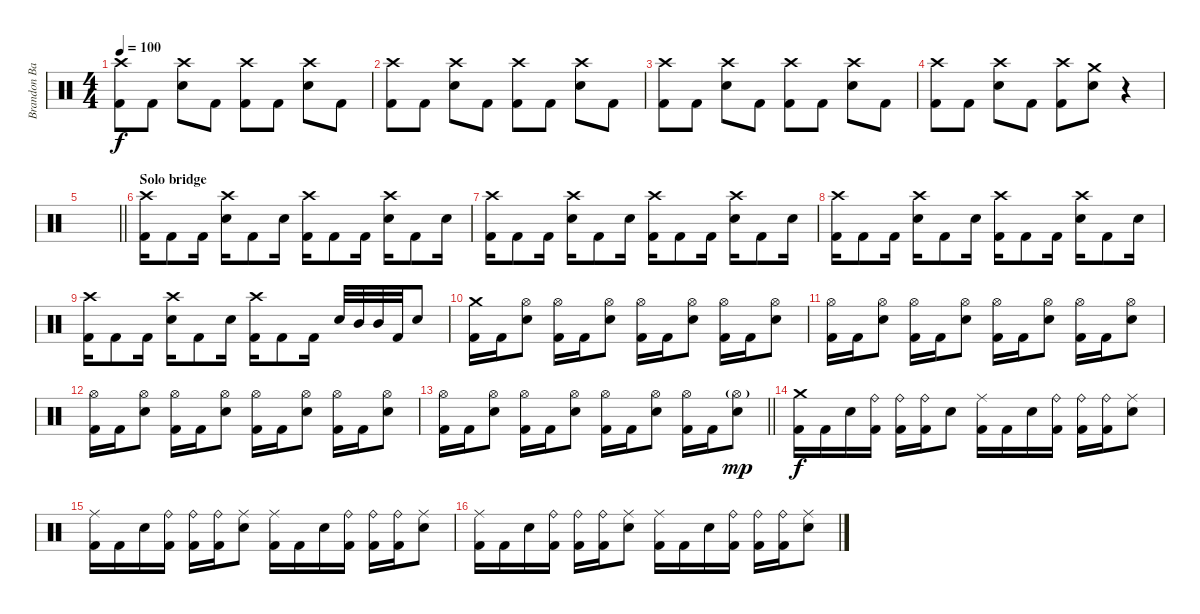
\track ("Brandon Barnes" "Brandon Ba") {instrument percussion}
\staff {score}
\articulation defaults
\ts (4 4)
\tempo 100
\clef neutral
\ks c
("Crash high (hit)" "Kick (hit) 2").8{dy f} "Kick (hit) 2".8 ("Crash high (hit)" "Electric Snare (hit)").8 "Kick (hit) 2".8 ("Crash high (hit)" "Kick (hit) 2").8 "Kick (hit) 2".8 ("Crash high (hit)" "Electric Snare (hit)").8 "Kick (hit) 2".8 |
("Crash high (hit)" "Kick (hit) 2").8 "Kick (hit) 2".8 ("Crash high (hit)" "Electric Snare (hit)").8 "Kick (hit) 2".8 ("Crash high (hit)" "Kick (hit) 2").8 "Kick (hit) 2".8 ("Crash high (hit)" "Electric Snare (hit)").8 "Kick (hit) 2".8 |
("Crash high (hit)" "Kick (hit) 2").8 "Kick (hit) 2".8 ("Crash high (hit)" "Electric Snare (hit)").8 "Kick (hit) 2".8 ("Crash high (hit)" "Kick (hit) 2").8 "Kick (hit) 2".8 ("Crash high (hit)" "Electric Snare (hit)").8 "Kick (hit) 2".8 |
("Crash high (hit)" "Kick (hit) 2").8 "Kick (hit) 2".8 ("Crash high (hit)" "Electric Snare (hit)").8 "Kick (hit) 2".8 ("Crash high (hit)" "Kick (hit) 2").8 ("Crash medium (hit)" "Electric Snare (hit)").8 r.4 |
\barLineRight lightlight
|
\section ("" "Solo bridge")
("Crash high (hit)" "Kick (hit) 2").16 "Kick (hit) 2".8 "Kick (hit) 2".16 ("Crash high (hit)" "Electric Snare (hit)").16 "Kick (hit) 2".8 "Electric Snare (hit)".16 ("Crash high (hit)" "Kick (hit) 2").16 "Kick (hit) 2".8 "Kick (hit) 2".16 ("Crash high (hit)" "Electric Snare (hit)").16 "Kick (hit) 2".8 "Electric Snare (hit)".16 |
("Crash high (hit)" "Kick (hit) 2").16 "Kick (hit) 2".8 "Kick (hit) 2".16 ("Crash high (hit)" "Electric Snare (hit)").16 "Kick (hit) 2".8 "Electric Snare (hit)".16 ("Crash high (hit)" "Kick (hit) 2").16 "Kick (hit) 2".8 "Kick (hit) 2".16 ("Crash high (hit)" "Electric Snare (hit)").16 "Kick (hit) 2".8 "Electric Snare (hit)".16 |
("Crash high (hit)" "Kick (hit) 2").16 "Kick (hit) 2".8 "Kick (hit) 2".16 ("Crash high (hit)" "Electric Snare (hit)").16 "Kick (hit) 2".8 "Electric Snare (hit)".16 ("Crash high (hit)" "Kick (hit) 2").16 "Kick (hit) 2".8 "Kick (hit) 2".16 ("Crash high (hit)" "Electric Snare (hit)").16 "Kick (hit) 2".8 "Electric Snare (hit)".16 |
("Crash high (hit)" "Kick (hit) 2").16 "Kick (hit) 2".8 "Kick (hit) 2".16 ("Crash high (hit)" "Electric Snare (hit)").16 "Kick (hit) 2".8 "Electric Snare (hit)".16 ("Crash high (hit)" "Kick (hit) 2").16 "Kick (hit) 2".8 "Kick (hit) 2".16 "Electric Snare (hit)".32 "Mid Tom (hit)".32 "Mid Tom (hit)".32 "Kick (hit) 2".32 "Electric Snare (hit)".8 |
("Crash medium (hit)" "Kick (hit) 2").16 "Kick (hit) 2".16 ("Hi-Hat (open)" "Electric Snare (hit)").8 ("Hi-Hat (open)" "Kick (hit) 2").16 "Kick (hit) 2".16 ("Hi-Hat (open)" "Electric Snare (hit)").8 ("Hi-Hat (open)" "Kick (hit) 2").16 "Kick (hit) 2".16 ("Hi-Hat (open)" "Electric Snare (hit)").8 ("Hi-Hat (open)" "Kick (hit) 2").16 "Kick (hit) 2".16 ("Hi-Hat (open)" "Electric Snare (hit)").8 |
("Hi-Hat (open)" "Kick (hit) 2").16 "Kick (hit) 2".16 ("Hi-Hat (open)" "Electric Snare (hit)").8 ("Hi-Hat (open)" "Kick (hit) 2").16 "Kick (hit) 2".16 ("Hi-Hat (open)" "Electric Snare (hit)").8 ("Hi-Hat (open)" "Kick (hit) 2").16 "Kick (hit) 2".16 ("Hi-Hat (open)" "Electric Snare (hit)").8 ("Hi-Hat (open)" "Kick (hit) 2").16 "Kick (hit) 2".16 ("Hi-Hat (open)" "Electric Snare (hit)").8 |
("Hi-Hat (open)" "Kick (hit) 2").16 "Kick (hit) 2".16 ("Hi-Hat (open)" "Electric Snare (hit)").8 ("Hi-Hat (open)" "Kick (hit) 2").16 "Kick (hit) 2".16 ("Hi-Hat (open)" "Electric Snare (hit)").8 ("Hi-Hat (open)" "Kick (hit) 2").16 "Kick (hit) 2".16 ("Hi-Hat (open)" "Electric Snare (hit)").8 ("Hi-Hat (open)" "Kick (hit) 2").16 "Kick (hit) 2".16 ("Hi-Hat (open)" "Electric Snare (hit)").8 |
\barLineRight lightlight
("Hi-Hat (open)" "Kick (hit) 2").16 "Kick (hit) 2".16 ("Hi-Hat (open)" "Electric Snare (hit)").8 ("Hi-Hat (open)" "Kick (hit) 2").16 "Kick (hit) 2".16 ("Hi-Hat (open)" "Electric Snare (hit)").8 ("Hi-Hat (open)" "Kick (hit) 2").16 "Kick (hit) 2".16 ("Hi-Hat (open)" "Electric Snare (hit)").8 ("Hi-Hat (open)" "Kick (hit) 2").16 "Kick (hit) 2".16 ("Hi-Hat (open)"{g} "Electric Snare (hit)").8{dy mp} |
("Crash medium (hit)" "Kick (hit) 2").16{dy f} "Kick (hit) 2".16 "Electric Snare (hit)".16 ("Ride (bell)" "Kick (hit) 2").16 ("Ride (bell)" "Kick (hit) 2").16 ("Ride (bell)" "Kick (hit) 2").16 "Electric Snare (hit)".8 ("Ride (middle)" "Kick (hit) 2").16 "Kick (hit) 2".16 "Electric Snare (hit)".16 ("Ride (bell)" "Kick (hit) 2").16 ("Ride (bell)" "Kick (hit) 2").16 ("Ride (bell)" "Kick (hit) 2").16 ("Ride (middle)" "Electric Snare (hit)").8 |
("Ride (middle)" "Kick (hit) 2").16 "Kick (hit) 2".16 "Electric Snare (hit)".16 ("Ride (bell)" "Kick (hit) 2").16 ("Ride (bell)" "Kick (hit) 2").16 ("Ride (bell)" "Kick (hit) 2").16 ("Ride (middle)" "Electric Snare (hit)").8 ("Ride (middle)" "Kick (hit) 2").16 "Kick (hit) 2".16 "Electric Snare (hit)".16 ("Ride (bell)" "Kick (hit) 2").16 ("Ride (bell)" "Kick (hit) 2").16 ("Ride (bell)" "Kick (hit) 2").16 ("Ride (middle)" "Electric Snare (hit)").8 |
("Ride (middle)" "Kick (hit) 2").16 "Kick (hit) 2".16 "Electric Snare (hit)".16 ("Ride (bell)" "Kick (hit) 2").16 ("Ride (bell)" "Kick (hit) 2").16 ("Ride (bell)" "Kick (hit) 2").16 ("Ride (middle)" "Electric Snare (hit)").8 ("Ride (middle)" "Kick (hit) 2").16 "Kick (hit) 2".16 "Electric Snare (hit)".16 ("Ride (bell)" "Kick (hit) 2").16 ("Ride (bell)" "Kick (hit) 2").16 ("Ride (bell)" "Kick (hit) 2").16 ("Ride (middle)" "Electric Snare (hit)").8
